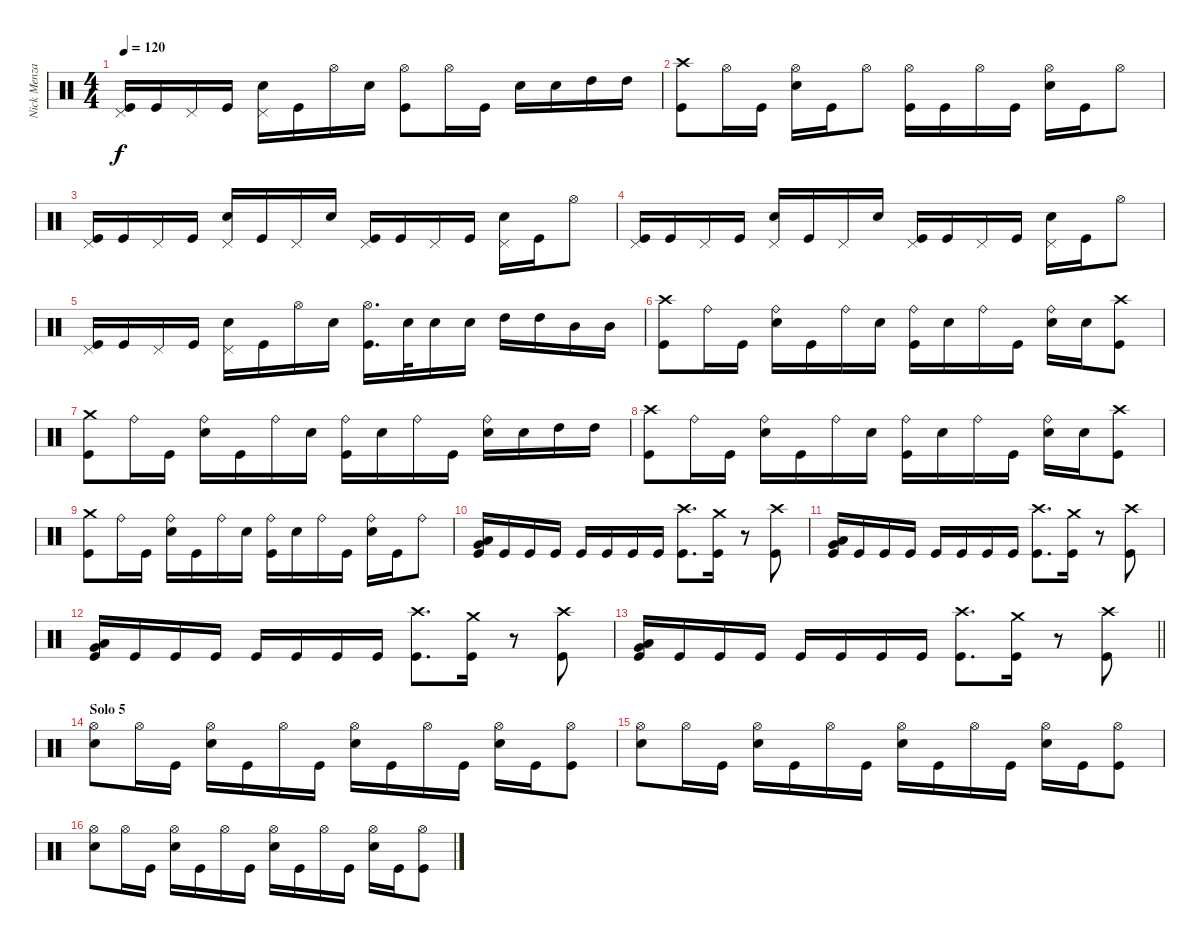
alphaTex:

\track ("Nick Menza" "Nick Menza") {instrument percussion}
\staff {score}
\articulation defaults
\ts (4 4)
\tempo 120
\clef neutral
\ks c
("Pedal Hi-Hat (hit)" "Kick (hit)").16{dy f} "Kick (hit)".16 "Pedal Hi-Hat (hit)".16 "Kick (hit)".16 ("Pedal Hi-Hat (hit)" "Snare (hit) 2").16 "Kick (hit)".16 "Hi-Hat (open)".16 "Snare (hit) 2".16 ("Hi-Hat (open)" "Kick (hit)").8 "Hi-Hat (open)".16 "Kick (hit)".16 "Snare (hit) 2".16 "Snare (hit) 2".16 "High Tom (hit)".16 "High Tom (hit)".16 |
("Crash high (hit)" "Kick (hit)").8 "Hi-Hat (open)".16 "Kick (hit)".16 ("Hi-Hat (open)" "Snare (hit) 2").16 "Kick (hit)".16 "Hi-Hat (open)".8 ("Hi-Hat (open)" "Kick (hit)").16 "Kick (hit)".16 "Hi-Hat (open)".16 "Kick (hit)".16 ("Hi-Hat (open)" "Snare (hit) 2").16 "Kick (hit)".16 "Hi-Hat (open)".8 |
("Pedal Hi-Hat (hit)" "Kick (hit)").16 "Kick (hit)".16 "Pedal Hi-Hat (hit)".16 "Kick (hit)".16 ("Pedal Hi-Hat (hit)" "Snare (hit) 2").16 "Kick (hit)".16 "Pedal Hi-Hat (hit)".16 "Snare (hit) 2".16 ("Pedal Hi-Hat (hit)" "Kick (hit)").16 "Kick (hit)".16 "Pedal Hi-Hat (hit)".16 "Kick (hit)".16 ("Pedal Hi-Hat (hit)" "Snare (hit) 2").16 "Kick (hit)".16 "Hi-Hat (open)".8 |
("Pedal Hi-Hat (hit)" "Kick (hit)").16 "Kick (hit)".16 "Pedal Hi-Hat (hit)".16 "Kick (hit)".16 ("Pedal Hi-Hat (hit)" "Snare (hit) 2").16 "Kick (hit)".16 "Pedal Hi-Hat (hit)".16 "Snare (hit) 2".16 ("Pedal Hi-Hat (hit)" "Kick (hit)").16 "Kick (hit)".16 "Pedal Hi-Hat (hit)".16 "Kick (hit)".16 ("Pedal Hi-Hat (hit)" "Snare (hit) 2").16 "Kick (hit)".16 "Hi-Hat (open)".8 |
("Pedal Hi-Hat (hit)" "Kick (hit)").16 "Kick (hit)".16 "Pedal Hi-Hat (hit)".16 "Kick (hit)".16 ("Pedal Hi-Hat (hit)" "Snare (hit) 2").16 "Kick (hit)".16 "Hi-Hat (open)".16 "Snare (hit) 2".16 ("Hi-Hat (open)" "Kick (hit)").16{d} "Snare (hit) 2".32 "Snare (hit) 2".16 "Snare (hit) 2".16 "High Tom (hit)".16 "High Tom (hit)".16 "Mid Tom (hit)".16 "Mid Tom (hit)".16 |
("Crash high (hit)" "Kick (hit)").8 "Ride (bell)".16 "Kick (hit)".16 ("Ride (bell)" "Snare (hit) 2").16 "Kick (hit)".16 "Ride (bell)".16 "Snare (hit) 2".16 ("Ride (bell)" "Kick (hit)").16 "Snare (hit) 2".16 "Ride (bell)".16 "Kick (hit)".16 ("Ride (bell)" "Snare (hit) 2").16 "Snare (hit) 2".16 ("Crash high (hit)" "Kick (hit)").8 |
("Crash medium (hit)" "Kick (hit)").8 "Ride (bell)".16 "Kick (hit)".16 ("Ride (bell)" "Snare (hit) 2").16 "Kick (hit)".16 "Ride (bell)".16 "Snare (hit) 2".16 ("Ride (bell)" "Kick (hit)").16 "Snare (hit) 2".16 "Ride (bell)".16 "Kick (hit)".16 ("Ride (bell)" "Snare (hit) 2").16 "Snare (hit) 2".16 "High Tom (hit)".16 "High Tom (hit)".16 |
("Crash high (hit)" "Kick (hit)").8 "Ride (bell)".16 "Kick (hit)".16 ("Ride (bell)" "Snare (hit) 2").16 "Kick (hit)".16 "Ride (bell)".16 "Snare (hit) 2".16 ("Ride (bell)" "Kick (hit)").16 "Snare (hit) 2".16 "Ride (bell)".16 "Kick (hit)".16 ("Ride (bell)" "Snare (hit) 2").16 "Snare (hit) 2".16 ("Crash high (hit)" "Kick (hit)").8 |
("Crash medium (hit)" "Kick (hit)").8 "Ride (bell)".16 "Kick (hit)".16 ("Ride (bell)" "Snare (hit) 2").16 "Kick (hit)".16 "Ride (bell)".16 "Snare (hit) 2".16 ("Ride (bell)" "Kick (hit)").16 "Snare (hit) 2".16 "Ride (bell)".16 "Kick (hit)".16 ("Ride (bell)" "Snare (hit) 2").16 "Kick (hit)".16 "Ride (bell)".8 |
("Very Low Tom (hit)" "Low Floor Tom (hit)" "Kick (hit)").16 "Kick (hit)".16 "Kick (hit)".16 "Kick (hit)".16 "Kick (hit)".16 "Kick (hit)".16 "Kick (hit)".16 "Kick (hit)".16 ("Crash high (hit)" "Kick (hit)").8{d} ("Crash medium (hit)" "Kick (hit)").16 r.8 ("Crash high (hit)" "Kick (hit)").8 |
("Very Low Tom (hit)" "Low Floor Tom (hit)" "Kick (hit)").16 "Kick (hit)".16 "Kick (hit)".16 "Kick (hit)".16 "Kick (hit)".16 "Kick (hit)".16 "Kick (hit)".16 "Kick (hit)".16 ("Crash high (hit)" "Kick (hit)").8{d} ("Crash medium (hit)" "Kick (hit)").16 r.8 ("Crash high (hit)" "Kick (hit)").8 |
("Very Low Tom (hit)" "Low Floor Tom (hit)" "Kick (hit)").16 "Kick (hit)".16 "Kick (hit)".16 "Kick (hit)".16 "Kick (hit)".16 "Kick (hit)".16 "Kick (hit)".16 "Kick (hit)".16 ("Crash high (hit)" "Kick (hit)").8{d} ("Crash medium (hit)" "Kick (hit)").16 r.8 ("Crash high (hit)" "Kick (hit)").8 |
\barLineRight lightlight
("Very Low Tom (hit)" "Low Floor Tom (hit)" "Kick (hit)").16 "Kick (hit)".16 "Kick (hit)".16 "Kick (hit)".16 "Kick (hit)".16 "Kick (hit)".16 "Kick (hit)".16 "Kick (hit)".16 ("Crash high (hit)" "Kick (hit)").8{d} ("Crash medium (hit)" "Kick (hit)").16 r.8 ("Crash high (hit)" "Kick (hit)").8 |
\section ("" "Solo 5")
("Hi-Hat (open)" "Snare (hit) 2").8 "Hi-Hat (open)".16 "Kick (hit)".16 ("Hi-Hat (open)" "Snare (hit) 2").16 "Kick (hit)".16 "Hi-Hat (open)".16 "Kick (hit)".16 ("Hi-Hat (open)" "Snare (hit) 2").16 "Kick (hit)".16 "Hi-Hat (open)".16 "Kick (hit)".16 ("Hi-Hat (open)" "Snare (hit) 2").16 "Kick (hit)".16 ("Hi-Hat (open)" "Kick (hit)").8 |
("Hi-Hat (open)" "Snare (hit) 2").8 "Hi-Hat (open)".16 "Kick (hit)".16 ("Hi-Hat (open)" "Snare (hit) 2").16 "Kick (hit)".16 "Hi-Hat (open)".16 "Kick (hit)".16 ("Hi-Hat (open)" "Snare (hit) 2").16 "Kick (hit)".16 "Hi-Hat (open)".16 "Kick (hit)".16 ("Hi-Hat (open)" "Snare (hit) 2").16 "Kick (hit)".16 ("Hi-Hat (open)" "Kick (hit)").8 |
("Hi-Hat (open)" "Snare (hit) 2").8 "Hi-Hat (open)".16 "Kick (hit)".16 ("Hi-Hat (open)" "Snare (hit) 2").16 "Kick (hit)".16 "Hi-Hat (open)".16 "Kick (hit)".16 ("Hi-Hat (open)" "Snare (hit) 2").16 "Kick (hit)".16 "Hi-Hat (open)".16 "Kick (hit)".16 ("Hi-Hat (open)" "Snare (hit) 2").16 "Kick (hit)".16 ("Hi-Hat (open)" "Kick (hit)").8
